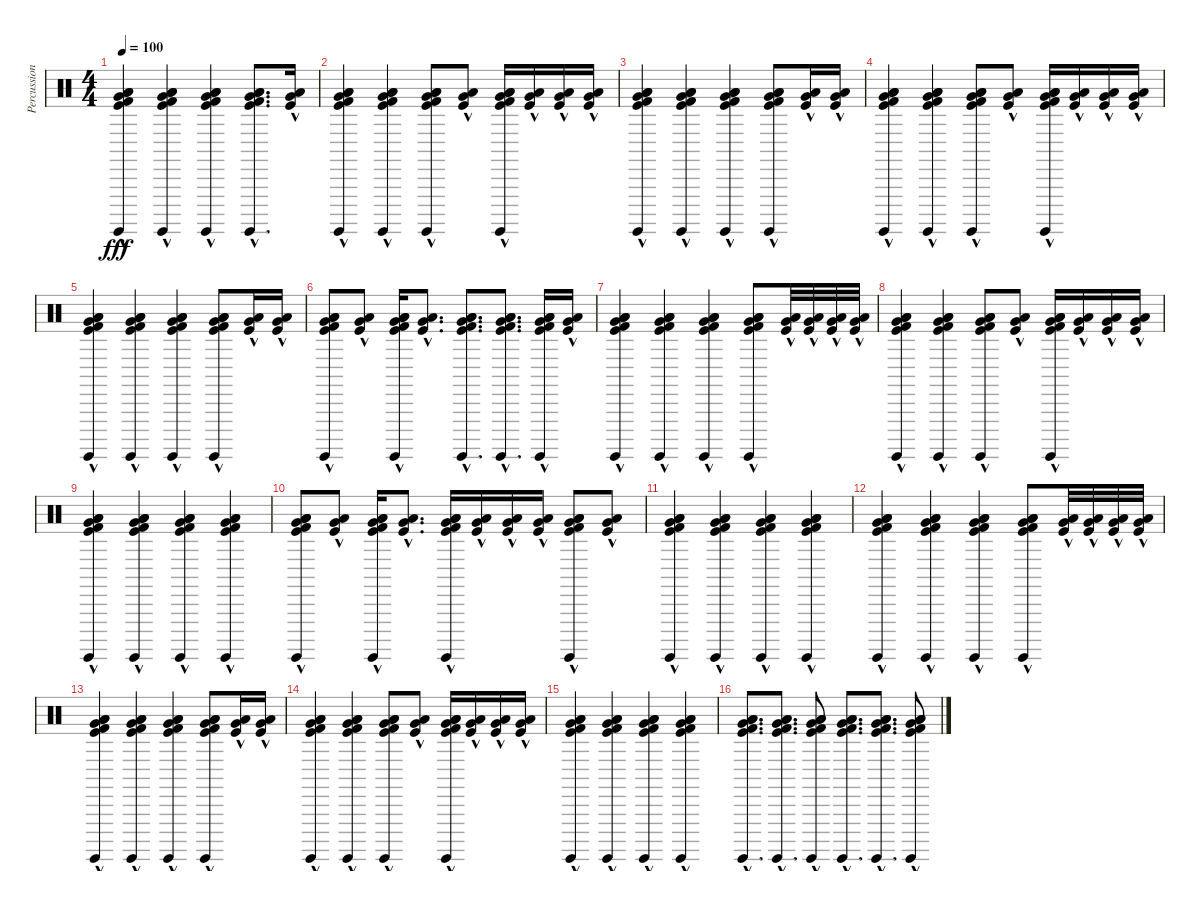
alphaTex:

\track ("Percussion" "Percussion") {instrument percussion}
\staff {score}
\articulation defaults
\ts (4 4)
\tempo 100
\clef neutral
\ks c
("Kick (hit)"{hac} "Very Low Tom (hit)"{hac} "Low Tom (hit)"{hac} "Low Floor Tom (hit)"{hac} "Surdo (hit)"{hac} "Kick (hit) 2"{hac}).4{dy fff} ("Kick (hit)"{hac} "Very Low Tom (hit)"{hac} "Low Tom (hit)"{hac} "Low Floor Tom (hit)"{hac} "Surdo (hit)"{hac} "Kick (hit) 2"{hac}).4 ("Kick (hit)"{hac} "Very Low Tom (hit)"{hac} "Low Tom (hit)"{hac} "Low Floor Tom (hit)"{hac} "Surdo (hit)"{hac} "Kick (hit) 2"{hac}).4 ("Kick (hit)"{hac} "Very Low Tom (hit)"{hac} "Low Floor Tom (hit)"{hac} "Low Tom (hit)"{hac} "Surdo (hit)"{hac} "Kick (hit) 2"{hac}).8{d} ("Kick (hit)"{hac} "Very Low Tom (hit)"{hac} "Low Tom (hit)"{hac}).16 |
("Kick (hit)"{hac} "Very Low Tom (hit)"{hac} "Low Tom (hit)"{hac} "Low Floor Tom (hit)"{hac} "Surdo (hit)"{hac} "Kick (hit) 2"{hac}).4 ("Kick (hit)"{hac} "Very Low Tom (hit)"{hac} "Low Tom (hit)"{hac} "Low Floor Tom (hit)"{hac} "Surdo (hit)"{hac} "Kick (hit) 2"{hac}).4 ("Kick (hit)"{hac} "Very Low Tom (hit)"{hac} "Low Tom (hit)"{hac} "Low Floor Tom (hit)"{hac} "Surdo (hit)"{hac} "Kick (hit) 2"{hac}).8 ("Kick (hit)"{hac} "Very Low Tom (hit)"{hac} "Low Tom (hit)"{hac}).8 ("Kick (hit)"{hac} "Very Low Tom (hit)"{hac} "Low Tom (hit)"{hac} "Low Floor Tom (hit)"{hac} "Surdo (hit)"{hac} "Kick (hit) 2"{hac}).16 ("Kick (hit)"{hac} "Very Low Tom (hit)"{hac} "Low Tom (hit)"{hac}).16 ("Kick (hit)"{hac} "Very Low Tom (hit)"{hac} "Low Tom (hit)"{hac}).16 ("Kick (hit)"{hac} "Very Low Tom (hit)"{hac} "Low Tom (hit)"{hac}).16 |
("Kick (hit)"{hac} "Very Low Tom (hit)"{hac} "Low Tom (hit)"{hac} "Low Floor Tom (hit)"{hac} "Surdo (hit)"{hac} "Kick (hit) 2"{hac}).4 ("Kick (hit)"{hac} "Very Low Tom (hit)"{hac} "Low Tom (hit)"{hac} "Low Floor Tom (hit)"{hac} "Surdo (hit)"{hac} "Kick (hit) 2"{hac}).4 ("Kick (hit)"{hac} "Very Low Tom (hit)"{hac} "Low Tom (hit)"{hac} "Low Floor Tom (hit)"{hac} "Surdo (hit)"{hac} "Kick (hit) 2"{hac}).4 ("Kick (hit)"{hac} "Very Low Tom (hit)"{hac} "Low Floor Tom (hit)"{hac} "Low Tom (hit)"{hac} "Surdo (hit)"{hac} "Kick (hit) 2"{hac}).8 ("Kick (hit)"{hac} "Very Low Tom (hit)"{hac} "Low Tom (hit)"{hac}).16 ("Kick (hit)"{hac} "Very Low Tom (hit)"{hac} "Low Tom (hit)"{hac}).16 |
("Kick (hit)"{hac} "Very Low Tom (hit)"{hac} "Low Tom (hit)"{hac} "Low Floor Tom (hit)"{hac} "Surdo (hit)"{hac} "Kick (hit) 2"{hac}).4 ("Kick (hit)"{hac} "Very Low Tom (hit)"{hac} "Low Tom (hit)"{hac} "Low Floor Tom (hit)"{hac} "Surdo (hit)"{hac} "Kick (hit) 2"{hac}).4 ("Kick (hit)"{hac} "Very Low Tom (hit)"{hac} "Low Tom (hit)"{hac} "Low Floor Tom (hit)"{hac} "Surdo (hit)"{hac} "Kick (hit) 2"{hac}).8 ("Kick (hit)"{hac} "Very Low Tom (hit)"{hac} "Low Tom (hit)"{hac}).8 ("Kick (hit)"{hac} "Very Low Tom (hit)"{hac} "Low Tom (hit)"{hac} "Low Floor Tom (hit)"{hac} "Surdo (hit)"{hac} "Kick (hit) 2"{hac}).16 ("Kick (hit)"{hac} "Very Low Tom (hit)"{hac} "Low Tom (hit)"{hac}).16 ("Kick (hit)"{hac} "Very Low Tom (hit)"{hac} "Low Tom (hit)"{hac}).16 ("Kick (hit)"{hac} "Very Low Tom (hit)"{hac} "Low Tom (hit)"{hac}).16 |
("Kick (hit)"{hac} "Very Low Tom (hit)"{hac} "Low Tom (hit)"{hac} "Low Floor Tom (hit)"{hac} "Surdo (hit)"{hac} "Kick (hit) 2"{hac}).4 ("Kick (hit)"{hac} "Very Low Tom (hit)"{hac} "Low Tom (hit)"{hac} "Low Floor Tom (hit)"{hac} "Surdo (hit)"{hac} "Kick (hit) 2"{hac}).4 ("Kick (hit)"{hac} "Very Low Tom (hit)"{hac} "Low Tom (hit)"{hac} "Low Floor Tom (hit)"{hac} "Surdo (hit)"{hac} "Kick (hit) 2"{hac}).4 ("Kick (hit)"{hac} "Very Low Tom (hit)"{hac} "Low Floor Tom (hit)"{hac} "Low Tom (hit)"{hac} "Surdo (hit)"{hac} "Kick (hit) 2"{hac}).8 ("Kick (hit)"{hac} "Very Low Tom (hit)"{hac} "Low Tom (hit)"{hac}).16 ("Kick (hit)"{hac} "Very Low Tom (hit)"{hac} "Low Tom (hit)"{hac}).16 |
("Kick (hit)"{hac} "Very Low Tom (hit)"{hac} "Low Tom (hit)"{hac} "Low Floor Tom (hit)"{hac} "Surdo (hit)"{hac} "Kick (hit) 2"{hac}).8 ("Kick (hit)"{hac} "Very Low Tom (hit)"{hac} "Low Tom (hit)"{hac}).8 ("Kick (hit)"{hac} "Very Low Tom (hit)"{hac} "Low Tom (hit)"{hac} "Low Floor Tom (hit)"{hac} "Surdo (hit)"{hac} "Kick (hit) 2"{hac}).16 ("Kick (hit)"{hac} "Very Low Tom (hit)"{hac} "Low Tom (hit)"{hac}).8{d} ("Kick (hit)"{hac} "Very Low Tom (hit)"{hac} "Low Tom (hit)"{hac} "Low Floor Tom (hit)"{hac} "Surdo (hit)"{hac} "Kick (hit) 2"{hac}).8{d} ("Kick (hit)"{hac} "Very Low Tom (hit)"{hac} "Low Tom (hit)"{hac} "Low Floor Tom (hit)"{hac} "Surdo (hit)"{hac} "Kick (hit) 2"{hac}).8{d} ("Kick (hit)"{hac} "Very Low Tom (hit)"{hac} "Low Tom (hit)"{hac} "Low Floor Tom (hit)"{hac} "Surdo (hit)"{hac} "Kick (hit) 2"{hac}).16 ("Kick (hit)"{hac} "Very Low Tom (hit)"{hac} "Low Tom (hit)"{hac}).16 |
("Kick (hit)"{hac} "Very Low Tom (hit)"{hac} "Low Tom (hit)"{hac} "Low Floor Tom (hit)"{hac} "Surdo (hit)"{hac} "Kick (hit) 2"{hac}).4 ("Kick (hit)"{hac} "Very Low Tom (hit)"{hac} "Low Tom (hit)"{hac} "Low Floor Tom (hit)"{hac} "Surdo (hit)"{hac} "Kick (hit) 2"{hac}).4 ("Kick (hit)"{hac} "Very Low Tom (hit)"{hac} "Low Tom (hit)"{hac} "Low Floor Tom (hit)"{hac} "Surdo (hit)"{hac} "Kick (hit) 2"{hac}).4 ("Kick (hit)"{hac} "Very Low Tom (hit)"{hac} "Low Floor Tom (hit)"{hac} "Low Tom (hit)"{hac} "Surdo (hit)"{hac} "Kick (hit) 2"{hac}).8 ("Kick (hit)"{hac} "Very Low Tom (hit)"{hac} "Low Tom (hit)"{hac}).32 ("Kick (hit)"{hac} "Very Low Tom (hit)"{hac} "Low Tom (hit)"{hac}).32 ("Kick (hit)"{hac} "Very Low Tom (hit)"{hac} "Low Tom (hit)"{hac}).32 ("Kick (hit)"{hac} "Very Low Tom (hit)"{hac} "Low Tom (hit)"{hac}).32 |
("Kick (hit)"{hac} "Very Low Tom (hit)"{hac} "Low Tom (hit)"{hac} "Low Floor Tom (hit)"{hac} "Surdo (hit)"{hac} "Kick (hit) 2"{hac}).4 ("Kick (hit)"{hac} "Very Low Tom (hit)"{hac} "Low Tom (hit)"{hac} "Low Floor Tom (hit)"{hac} "Surdo (hit)"{hac} "Kick (hit) 2"{hac}).4 ("Kick (hit)"{hac} "Very Low Tom (hit)"{hac} "Low Tom (hit)"{hac} "Low Floor Tom (hit)"{hac} "Surdo (hit)"{hac} "Kick (hit) 2"{hac}).8 ("Kick (hit)"{hac} "Very Low Tom (hit)"{hac} "Low Tom (hit)"{hac}).8 ("Kick (hit)"{hac} "Very Low Tom (hit)"{hac} "Low Tom (hit)"{hac} "Low Floor Tom (hit)"{hac} "Surdo (hit)"{hac} "Kick (hit) 2"{hac}).16 ("Kick (hit)"{hac} "Very Low Tom (hit)"{hac} "Low Tom (hit)"{hac}).16 ("Kick (hit)"{hac} "Very Low Tom (hit)"{hac} "Low Tom (hit)"{hac}).16 ("Kick (hit)"{hac} "Very Low Tom (hit)"{hac} "Low Tom (hit)"{hac}).16 |
("Kick (hit)"{hac} "Very Low Tom (hit)"{hac} "Low Tom (hit)"{hac} "Low Floor Tom (hit)"{hac} "Surdo (hit)"{hac} "Kick (hit) 2"{hac}).4 ("Kick (hit)"{hac} "Very Low Tom (hit)"{hac} "Low Tom (hit)"{hac} "Low Floor Tom (hit)"{hac} "Surdo (hit)"{hac} "Kick (hit) 2"{hac}).4 ("Kick (hit)"{hac} "Very Low Tom (hit)"{hac} "Low Tom (hit)"{hac} "Low Floor Tom (hit)"{hac} "Surdo (hit)"{hac} "Kick (hit) 2"{hac}).4 ("Kick (hit)"{hac} "Very Low Tom (hit)"{hac} "Low Floor Tom (hit)"{hac} "Low Tom (hit)"{hac} "Surdo (hit)"{hac} "Kick (hit) 2"{hac}).4 |
("Kick (hit)"{hac} "Very Low Tom (hit)"{hac} "Low Tom (hit)"{hac} "Low Floor Tom (hit)"{hac} "Surdo (hit)"{hac} "Kick (hit) 2"{hac}).8 ("Kick (hit)"{hac} "Very Low Tom (hit)"{hac} "Low Tom (hit)"{hac}).8 ("Kick (hit)"{hac} "Very Low Tom (hit)"{hac} "Low Tom (hit)"{hac} "Low Floor Tom (hit)"{hac} "Surdo (hit)"{hac} "Kick (hit) 2"{hac}).16 ("Kick (hit)"{hac} "Very Low Tom (hit)"{hac} "Low Tom (hit)"{hac}).8{d} ("Kick (hit)"{hac} "Very Low Tom (hit)"{hac} "Low Tom (hit)"{hac} "Low Floor Tom (hit)"{hac} "Surdo (hit)"{hac} "Kick (hit) 2"{hac}).16 ("Kick (hit)"{hac} "Very Low Tom (hit)"{hac} "Low Tom (hit)"{hac}).16 ("Kick (hit)"{hac} "Very Low Tom (hit)"{hac} "Low Tom (hit)"{hac}).16 ("Kick (hit)"{hac} "Very Low Tom (hit)"{hac} "Low Tom (hit)"{hac}).16 ("Kick (hit)"{hac} "Very Low Tom (hit)"{hac} "Low Tom (hit)"{hac} "Low Floor Tom (hit)"{hac} "Surdo (hit)"{hac} "Kick (hit) 2"{hac}).8 ("Kick (hit)"{hac} "Very Low Tom (hit)"{hac} "Low Tom (hit)"{hac}).8 |
("Kick (hit)"{hac} "Very Low Tom (hit)"{hac} "Low Tom (hit)"{hac} "Low Floor Tom (hit)"{hac} "Surdo (hit)"{hac} "Kick (hit) 2"{hac}).4 ("Kick (hit)"{hac} "Very Low Tom (hit)"{hac} "Low Tom (hit)"{hac} "Low Floor Tom (hit)"{hac} "Surdo (hit)"{hac} "Kick (hit) 2"{hac}).4 ("Kick (hit)"{hac} "Very Low Tom (hit)"{hac} "Low Tom (hit)"{hac} "Low Floor Tom (hit)"{hac} "Surdo (hit)"{hac} "Kick (hit) 2"{hac}).4 ("Kick (hit)"{hac} "Very Low Tom (hit)"{hac} "Low Floor Tom (hit)"{hac} "Low Tom (hit)"{hac} "Surdo (hit)"{hac} "Kick (hit) 2"{hac}).4 |
("Kick (hit)"{hac} "Very Low Tom (hit)"{hac} "Low Tom (hit)"{hac} "Low Floor Tom (hit)"{hac} "Surdo (hit)"{hac} "Kick (hit) 2"{hac}).4 ("Kick (hit)"{hac} "Very Low Tom (hit)"{hac} "Low Tom (hit)"{hac} "Low Floor Tom (hit)"{hac} "Surdo (hit)"{hac} "Kick (hit) 2"{hac}).4 ("Kick (hit)"{hac} "Very Low Tom (hit)"{hac} "Low Tom (hit)"{hac} "Low Floor Tom (hit)"{hac} "Surdo (hit)"{hac} "Kick (hit) 2"{hac}).4 ("Kick (hit)"{hac} "Very Low Tom (hit)"{hac} "Low Floor Tom (hit)"{hac} "Low Tom (hit)"{hac} "Surdo (hit)"{hac} "Kick (hit) 2"{hac}).8 ("Kick (hit)"{hac} "Very Low Tom (hit)"{hac} "Low Tom (hit)"{hac}).32 ("Kick (hit)"{hac} "Very Low Tom (hit)"{hac} "Low Tom (hit)"{hac}).32 ("Kick (hit)"{hac} "Very Low Tom (hit)"{hac} "Low Tom (hit)"{hac}).32 ("Kick (hit)"{hac} "Very Low Tom (hit)"{hac} "Low Tom (hit)"{hac}).32 |
("Kick (hit)"{hac} "Very Low Tom (hit)"{hac} "Low Tom (hit)"{hac} "Low Floor Tom (hit)"{hac} "Surdo (hit)"{hac} "Kick (hit) 2"{hac}).4 ("Kick (hit)"{hac} "Very Low Tom (hit)"{hac} "Low Tom (hit)"{hac} "Low Floor Tom (hit)"{hac} "Surdo (hit)"{hac} "Kick (hit) 2"{hac}).4 ("Kick (hit)"{hac} "Very Low Tom (hit)"{hac} "Low Tom (hit)"{hac} "Low Floor Tom (hit)"{hac} "Surdo (hit)"{hac} "Kick (hit) 2"{hac}).4 ("Kick (hit)"{hac} "Very Low Tom (hit)"{hac} "Low Floor Tom (hit)"{hac} "Low Tom (hit)"{hac} "Surdo (hit)"{hac} "Kick (hit) 2"{hac}).8 ("Kick (hit)"{hac} "Very Low Tom (hit)"{hac} "Low Tom (hit)"{hac}).16 ("Kick (hit)"{hac} "Very Low Tom (hit)"{hac} "Low Tom (hit)"{hac}).16 |
("Kick (hit)"{hac} "Very Low Tom (hit)"{hac} "Low Tom (hit)"{hac} "Low Floor Tom (hit)"{hac} "Surdo (hit)"{hac} "Kick (hit) 2"{hac}).4 ("Kick (hit)"{hac} "Very Low Tom (hit)"{hac} "Low Tom (hit)"{hac} "Low Floor Tom (hit)"{hac} "Surdo (hit)"{hac} "Kick (hit) 2"{hac}).4 ("Kick (hit)"{hac} "Very Low Tom (hit)"{hac} "Low Tom (hit)"{hac} "Low Floor Tom (hit)"{hac} "Surdo (hit)"{hac} "Kick (hit) 2"{hac}).8 ("Kick (hit)"{hac} "Very Low Tom (hit)"{hac} "Low Tom (hit)"{hac}).8 ("Kick (hit)"{hac} "Very Low Tom (hit)"{hac} "Low Tom (hit)"{hac} "Low Floor Tom (hit)"{hac} "Surdo (hit)"{hac} "Kick (hit) 2"{hac}).16 ("Kick (hit)"{hac} "Very Low Tom (hit)"{hac} "Low Tom (hit)"{hac}).16 ("Kick (hit)"{hac} "Very Low Tom (hit)"{hac} "Low Tom (hit)"{hac}).16 ("Kick (hit)"{hac} "Very Low Tom (hit)"{hac} "Low Tom (hit)"{hac}).16 |
("Kick (hit)"{hac} "Very Low Tom (hit)"{hac} "Low Tom (hit)"{hac} "Low Floor Tom (hit)"{hac} "Surdo (hit)"{hac} "Kick (hit) 2"{hac}).4 ("Kick (hit)"{hac} "Very Low Tom (hit)"{hac} "Low Tom (hit)"{hac} "Low Floor Tom (hit)"{hac} "Surdo (hit)"{hac} "Kick (hit) 2"{hac}).4 ("Kick (hit)"{hac} "Very Low Tom (hit)"{hac} "Low Tom (hit)"{hac} "Low Floor Tom (hit)"{hac} "Surdo (hit)"{hac} "Kick (hit) 2"{hac}).4 ("Kick (hit)"{hac} "Very Low Tom (hit)"{hac} "Low Floor Tom (hit)"{hac} "Low Tom (hit)"{hac} "Surdo (hit)"{hac} "Kick (hit) 2"{hac}).4 |
("Kick (hit)"{hac} "Very Low Tom (hit)"{hac} "Low Tom (hit)"{hac} "Low Floor Tom (hit)"{hac} "Surdo (hit)"{hac} "Kick (hit) 2"{hac}).8{d} ("Kick (hit)"{hac} "Very Low Tom (hit)"{hac} "Low Tom (hit)"{hac} "Low Floor Tom (hit)"{hac} "Surdo (hit)"{hac} "Kick (hit) 2"{hac}).8{d} ("Kick (hit)"{hac} "Very Low Tom (hit)"{hac} "Low Tom (hit)"{hac} "Low Floor Tom (hit)"{hac} "Surdo (hit)"{hac} "Kick (hit) 2"{hac}).8 ("Kick (hit)"{hac} "Very Low Tom (hit)"{hac} "Low Tom (hit)"{hac} "Low Floor Tom (hit)"{hac} "Surdo (hit)"{hac} "Kick (hit) 2"{hac}).8{d} ("Kick (hit)"{hac} "Very Low Tom (hit)"{hac} "Low Tom (hit)"{hac} "Low Floor Tom (hit)"{hac} "Surdo (hit)"{hac} "Kick (hit) 2"{hac}).8{d} ("Kick (hit)"{hac} "Very Low Tom (hit)"{hac} "Low Tom (hit)"{hac} "Low Floor Tom (hit)"{hac} "Surdo (hit)"{hac} "Kick (hit) 2"{hac}).8
